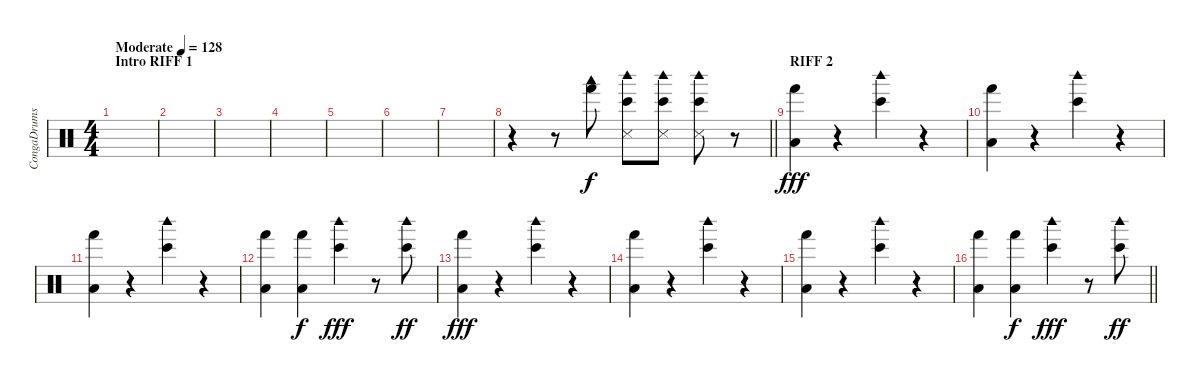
\track ("CongaDrums" "CongaDrums") {instrument percussion}
\staff {score}
\articulation defaults
\ts (4 4)
\section ("" "Intro RIFF 1")
\tempo (128 "Moderate")
\clef neutral
\ks c
|
|
|
|
|
|
|
\barLineRight lightlight
r.4 r.8 ("Hand (hit)" "Woodblock low (hit)").8 ("Bongo High (hit)" "Woodblock high (hit)" "Snare (side stick) 3").8 ("Bongo High (hit)" "Woodblock high (hit)" "Snare (side stick) 3").8 ("Bongo High (hit)" "Woodblock high (hit)" "Snare (side stick) 3").8 r.8 |
\section ("" "RIFF 2")
("Hand (hit)" "Low Floor Tom (hit)").4{dy fff} r.4 ("Bongo High (hit)" "Woodblock high (hit)").4 r.4 |
("Hand (hit)" "Low Floor Tom (hit)").4 r.4 ("Bongo High (hit)" "Woodblock high (hit)").4 r.4 |
("Hand (hit)" "Low Floor Tom (hit)").4 r.4 ("Bongo High (hit)" "Woodblock high (hit)").4 r.4 |
("Hand (hit)" "Low Floor Tom (hit)").4 ("Hand (hit)" "Low Floor Tom (hit)").4{dy f} ("Bongo High (hit)" "Woodblock high (hit)").4{dy fff} r.8 ("Bongo High (hit)" "Woodblock high (hit)").8{dy ff} |
("Hand (hit)" "Low Floor Tom (hit)").4{dy fff} r.4 ("Bongo High (hit)" "Woodblock high (hit)").4 r.4 |
("Hand (hit)" "Low Floor Tom (hit)").4 r.4 ("Bongo High (hit)" "Woodblock high (hit)").4 r.4 |
("Hand (hit)" "Low Floor Tom (hit)").4 r.4 ("Bongo High (hit)" "Woodblock high (hit)").4 r.4 |
\barLineRight lightlight
("Hand (hit)" "Low Floor Tom (hit)").4 ("Hand (hit)" "Low Floor Tom (hit)").4{dy f} ("Bongo High (hit)" "Woodblock high (hit)").4{dy fff} r.8 ("Bongo High (hit)" "Woodblock high (hit)").8{dy ff}
